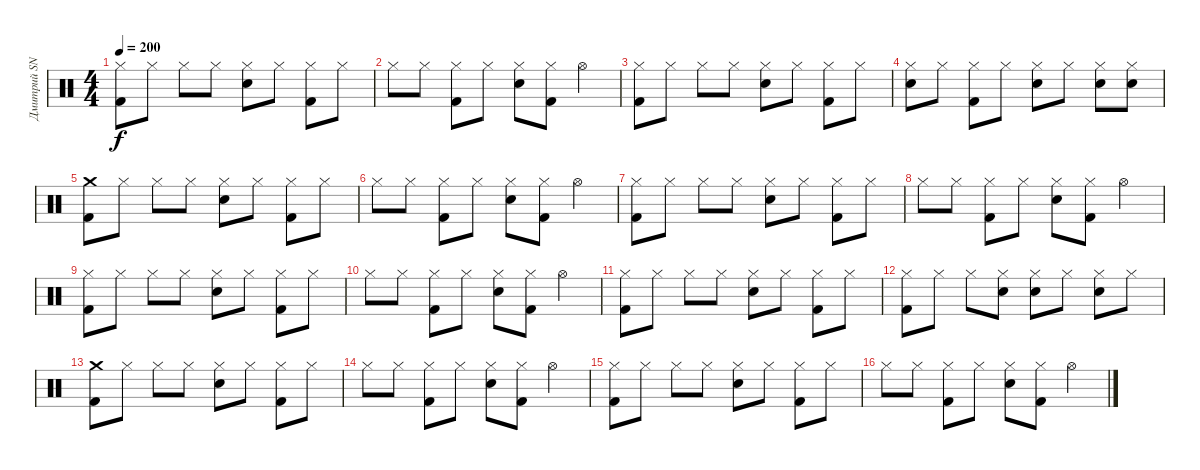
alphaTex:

\track ("Дмитрий SNAKE Хакимов" "Дмитрий SN") {instrument percussion}
\staff {score}
\articulation defaults
\ts (4 4)
\tempo 200
\clef neutral
\ks c
("Hi-Hat (closed)" "Kick (hit) 2").8{dy f} "Hi-Hat (closed)".8 "Hi-Hat (closed)".8 "Hi-Hat (closed)".8 ("Hi-Hat (closed)" "Snare (hit) 2").8 "Hi-Hat (closed)".8 ("Hi-Hat (closed)" "Kick (hit) 2").8 "Hi-Hat (closed)".8 |
"Hi-Hat (closed)".8 "Hi-Hat (closed)".8 ("Hi-Hat (closed)" "Kick (hit) 2").8 "Hi-Hat (closed)".8 ("Hi-Hat (closed)" "Snare (hit) 2").8 ("Hi-Hat (closed)" "Kick (hit) 2").8 "Hi-Hat (open)".4 |
("Hi-Hat (closed)" "Kick (hit) 2").8 "Hi-Hat (closed)".8 "Hi-Hat (closed)".8 "Hi-Hat (closed)".8 ("Hi-Hat (closed)" "Snare (hit) 2").8 "Hi-Hat (closed)".8 ("Hi-Hat (closed)" "Kick (hit) 2").8 "Hi-Hat (closed)".8 |
("Hi-Hat (closed)" "Snare (hit) 2").8 "Hi-Hat (closed)".8 ("Hi-Hat (closed)" "Kick (hit) 2").8 "Hi-Hat (closed)".8 ("Hi-Hat (closed)" "Snare (hit) 2").8 "Hi-Hat (closed)".8 ("Hi-Hat (closed)" "Snare (hit) 2").8 ("Hi-Hat (closed)" "Snare (hit) 2").8 |
("Crash medium (hit)" "Kick (hit) 2").8 "Hi-Hat (closed)".8 "Hi-Hat (closed)".8 "Hi-Hat (closed)".8 ("Hi-Hat (closed)" "Snare (hit) 2").8 "Hi-Hat (closed)".8 ("Hi-Hat (closed)" "Kick (hit) 2").8 "Hi-Hat (closed)".8 |
"Hi-Hat (closed)".8 "Hi-Hat (closed)".8 ("Hi-Hat (closed)" "Kick (hit) 2").8 "Hi-Hat (closed)".8 ("Hi-Hat (closed)" "Snare (hit) 2").8 ("Hi-Hat (closed)" "Kick (hit) 2").8 "Hi-Hat (open)".4 |
("Hi-Hat (closed)" "Kick (hit) 2").8 "Hi-Hat (closed)".8 "Hi-Hat (closed)".8 "Hi-Hat (closed)".8 ("Hi-Hat (closed)" "Snare (hit) 2").8 "Hi-Hat (closed)".8 ("Hi-Hat (closed)" "Kick (hit) 2").8 "Hi-Hat (closed)".8 |
"Hi-Hat (closed)".8 "Hi-Hat (closed)".8 ("Hi-Hat (closed)" "Kick (hit) 2").8 "Hi-Hat (closed)".8 ("Hi-Hat (closed)" "Snare (hit) 2").8 ("Hi-Hat (closed)" "Kick (hit) 2").8 "Hi-Hat (open)".4 |
("Hi-Hat (closed)" "Kick (hit) 2").8 "Hi-Hat (closed)".8 "Hi-Hat (closed)".8 "Hi-Hat (closed)".8 ("Hi-Hat (closed)" "Snare (hit) 2").8 "Hi-Hat (closed)".8 ("Hi-Hat (closed)" "Kick (hit) 2").8 "Hi-Hat (closed)".8 |
"Hi-Hat (closed)".8 "Hi-Hat (closed)".8 ("Hi-Hat (closed)" "Kick (hit) 2").8 "Hi-Hat (closed)".8 ("Hi-Hat (closed)" "Snare (hit) 2").8 ("Hi-Hat (closed)" "Kick (hit) 2").8 "Hi-Hat (open)".4 |
("Hi-Hat (closed)" "Kick (hit) 2").8 "Hi-Hat (closed)".8 "Hi-Hat (closed)".8 "Hi-Hat (closed)".8 ("Hi-Hat (closed)" "Snare (hit) 2").8 "Hi-Hat (closed)".8 ("Hi-Hat (closed)" "Kick (hit) 2").8 "Hi-Hat (closed)".8 |
("Hi-Hat (closed)" "Kick (hit) 2").8 "Hi-Hat (closed)".8 "Hi-Hat (closed)".8 ("Hi-Hat (closed)" "Snare (hit) 2").8 ("Hi-Hat (closed)" "Snare (hit) 2").8 "Hi-Hat (closed)".8 ("Hi-Hat (closed)" "Snare (hit) 2").8 "Hi-Hat (closed)".8 |
("Crash medium (hit)" "Kick (hit) 2").8 "Hi-Hat (closed)".8 "Hi-Hat (closed)".8 "Hi-Hat (closed)".8 ("Hi-Hat (closed)" "Snare (hit) 2").8 "Hi-Hat (closed)".8 ("Hi-Hat (closed)" "Kick (hit) 2").8 "Hi-Hat (closed)".8 |
"Hi-Hat (closed)".8 "Hi-Hat (closed)".8 ("Hi-Hat (closed)" "Kick (hit) 2").8 "Hi-Hat (closed)".8 ("Hi-Hat (closed)" "Snare (hit) 2").8 ("Hi-Hat (closed)" "Kick (hit) 2").8 "Hi-Hat (open)".4 |
("Hi-Hat (closed)" "Kick (hit) 2").8 "Hi-Hat (closed)".8 "Hi-Hat (closed)".8 "Hi-Hat (closed)".8 ("Hi-Hat (closed)" "Snare (hit) 2").8 "Hi-Hat (closed)".8 ("Hi-Hat (closed)" "Kick (hit) 2").8 "Hi-Hat (closed)".8 |
"Hi-Hat (closed)".8 "Hi-Hat (closed)".8 ("Hi-Hat (closed)" "Kick (hit) 2").8 "Hi-Hat (closed)".8 ("Hi-Hat (closed)" "Snare (hit) 2").8 ("Hi-Hat (closed)" "Kick (hit) 2").8 "Hi-Hat (open)".4
